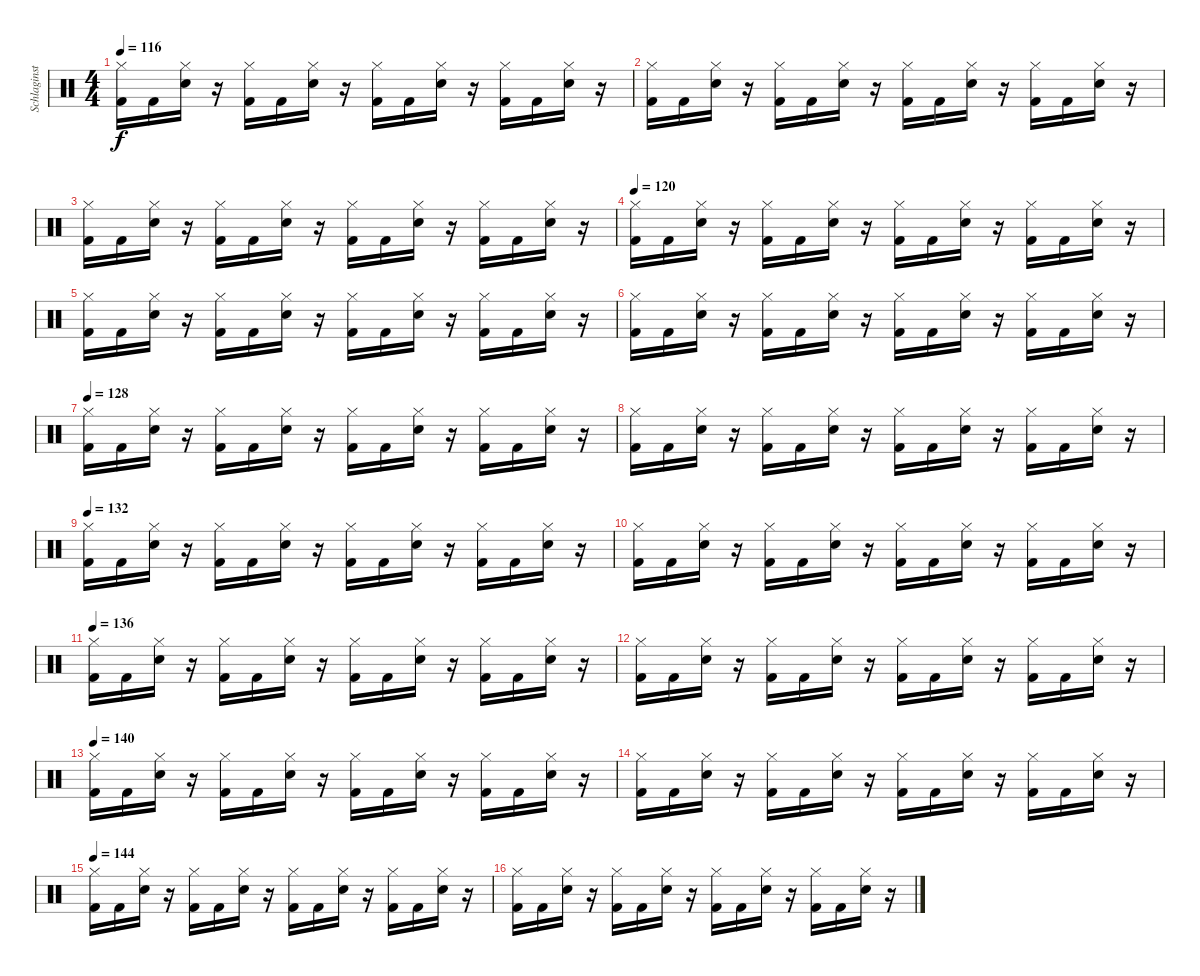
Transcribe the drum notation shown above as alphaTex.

\track ("Schlaginstrumente - Auswahl" "Schlaginst") {instrument percussion}
\staff {score}
\articulation defaults
\ts (4 4)
\tempo 116
\clef neutral
\ks c
("Hi-Hat (closed)" "Kick (hit) 2").16{dy f} "Kick (hit) 2".16 ("Hi-Hat (closed)" "Snare (hit) 2").16 r.16 ("Hi-Hat (closed)" "Kick (hit) 2").16 "Kick (hit) 2".16 ("Hi-Hat (closed)" "Snare (hit) 2").16 r.16 ("Hi-Hat (closed)" "Kick (hit) 2").16 "Kick (hit) 2".16 ("Hi-Hat (closed)" "Snare (hit) 2").16 r.16 ("Hi-Hat (closed)" "Kick (hit) 2").16 "Kick (hit) 2".16 ("Hi-Hat (closed)" "Snare (hit) 2").16 r.16 |
("Hi-Hat (closed)" "Kick (hit) 2").16 "Kick (hit) 2".16 ("Hi-Hat (closed)" "Snare (hit) 2").16 r.16 ("Hi-Hat (closed)" "Kick (hit) 2").16 "Kick (hit) 2".16 ("Hi-Hat (closed)" "Snare (hit) 2").16 r.16 ("Hi-Hat (closed)" "Kick (hit) 2").16 "Kick (hit) 2".16 ("Hi-Hat (closed)" "Snare (hit) 2").16 r.16 ("Hi-Hat (closed)" "Kick (hit) 2").16 "Kick (hit) 2".16 ("Hi-Hat (closed)" "Snare (hit) 2").16 r.16 |
("Hi-Hat (closed)" "Kick (hit) 2").16 "Kick (hit) 2".16 ("Hi-Hat (closed)" "Snare (hit) 2").16 r.16 ("Hi-Hat (closed)" "Kick (hit) 2").16 "Kick (hit) 2".16 ("Hi-Hat (closed)" "Snare (hit) 2").16 r.16 ("Hi-Hat (closed)" "Kick (hit) 2").16 "Kick (hit) 2".16 ("Hi-Hat (closed)" "Snare (hit) 2").16 r.16 ("Hi-Hat (closed)" "Kick (hit) 2").16 "Kick (hit) 2".16 ("Hi-Hat (closed)" "Snare (hit) 2").16 r.16 |
\tempo 120
("Hi-Hat (closed)" "Kick (hit) 2").16 "Kick (hit) 2".16 ("Hi-Hat (closed)" "Snare (hit) 2").16 r.16 ("Hi-Hat (closed)" "Kick (hit) 2").16 "Kick (hit) 2".16 ("Hi-Hat (closed)" "Snare (hit) 2").16 r.16 ("Hi-Hat (closed)" "Kick (hit) 2").16 "Kick (hit) 2".16 ("Hi-Hat (closed)" "Snare (hit) 2").16 r.16 ("Hi-Hat (closed)" "Kick (hit) 2").16 "Kick (hit) 2".16 ("Hi-Hat (closed)" "Snare (hit) 2").16 r.16 |
("Hi-Hat (closed)" "Kick (hit) 2").16 "Kick (hit) 2".16 ("Hi-Hat (closed)" "Snare (hit) 2").16 r.16 ("Hi-Hat (closed)" "Kick (hit) 2").16 "Kick (hit) 2".16 ("Hi-Hat (closed)" "Snare (hit) 2").16 r.16 ("Hi-Hat (closed)" "Kick (hit) 2").16 "Kick (hit) 2".16 ("Hi-Hat (closed)" "Snare (hit) 2").16 r.16 ("Hi-Hat (closed)" "Kick (hit) 2").16 "Kick (hit) 2".16 ("Hi-Hat (closed)" "Snare (hit) 2").16 r.16 |
("Hi-Hat (closed)" "Kick (hit) 2").16 "Kick (hit) 2".16 ("Hi-Hat (closed)" "Snare (hit) 2").16 r.16 ("Hi-Hat (closed)" "Kick (hit) 2").16 "Kick (hit) 2".16 ("Hi-Hat (closed)" "Snare (hit) 2").16 r.16 ("Hi-Hat (closed)" "Kick (hit) 2").16 "Kick (hit) 2".16 ("Hi-Hat (closed)" "Snare (hit) 2").16 r.16 ("Hi-Hat (closed)" "Kick (hit) 2").16 "Kick (hit) 2".16 ("Hi-Hat (closed)" "Snare (hit) 2").16 r.16 |
\tempo 128
("Hi-Hat (closed)" "Kick (hit) 2").16 "Kick (hit) 2".16 ("Hi-Hat (closed)" "Snare (hit) 2").16 r.16 ("Hi-Hat (closed)" "Kick (hit) 2").16 "Kick (hit) 2".16 ("Hi-Hat (closed)" "Snare (hit) 2").16 r.16 ("Hi-Hat (closed)" "Kick (hit) 2").16 "Kick (hit) 2".16 ("Hi-Hat (closed)" "Snare (hit) 2").16 r.16 ("Hi-Hat (closed)" "Kick (hit) 2").16 "Kick (hit) 2".16 ("Hi-Hat (closed)" "Snare (hit) 2").16 r.16 |
("Hi-Hat (closed)" "Kick (hit) 2").16 "Kick (hit) 2".16 ("Hi-Hat (closed)" "Snare (hit) 2").16 r.16 ("Hi-Hat (closed)" "Kick (hit) 2").16 "Kick (hit) 2".16 ("Hi-Hat (closed)" "Snare (hit) 2").16 r.16 ("Hi-Hat (closed)" "Kick (hit) 2").16 "Kick (hit) 2".16 ("Hi-Hat (closed)" "Snare (hit) 2").16 r.16 ("Hi-Hat (closed)" "Kick (hit) 2").16 "Kick (hit) 2".16 ("Hi-Hat (closed)" "Snare (hit) 2").16 r.16 |
\tempo 132
("Hi-Hat (closed)" "Kick (hit) 2").16 "Kick (hit) 2".16 ("Hi-Hat (closed)" "Snare (hit) 2").16 r.16 ("Hi-Hat (closed)" "Kick (hit) 2").16 "Kick (hit) 2".16 ("Hi-Hat (closed)" "Snare (hit) 2").16 r.16 ("Hi-Hat (closed)" "Kick (hit) 2").16 "Kick (hit) 2".16 ("Hi-Hat (closed)" "Snare (hit) 2").16 r.16 ("Hi-Hat (closed)" "Kick (hit) 2").16 "Kick (hit) 2".16 ("Hi-Hat (closed)" "Snare (hit) 2").16 r.16 |
("Hi-Hat (closed)" "Kick (hit) 2").16 "Kick (hit) 2".16 ("Hi-Hat (closed)" "Snare (hit) 2").16 r.16 ("Hi-Hat (closed)" "Kick (hit) 2").16 "Kick (hit) 2".16 ("Hi-Hat (closed)" "Snare (hit) 2").16 r.16 ("Hi-Hat (closed)" "Kick (hit) 2").16 "Kick (hit) 2".16 ("Hi-Hat (closed)" "Snare (hit) 2").16 r.16 ("Hi-Hat (closed)" "Kick (hit) 2").16 "Kick (hit) 2".16 ("Hi-Hat (closed)" "Snare (hit) 2").16 r.16 |
\tempo 136
("Hi-Hat (closed)" "Kick (hit) 2").16 "Kick (hit) 2".16 ("Hi-Hat (closed)" "Snare (hit) 2").16 r.16 ("Hi-Hat (closed)" "Kick (hit) 2").16 "Kick (hit) 2".16 ("Hi-Hat (closed)" "Snare (hit) 2").16 r.16 ("Hi-Hat (closed)" "Kick (hit) 2").16 "Kick (hit) 2".16 ("Hi-Hat (closed)" "Snare (hit) 2").16 r.16 ("Hi-Hat (closed)" "Kick (hit) 2").16 "Kick (hit) 2".16 ("Hi-Hat (closed)" "Snare (hit) 2").16 r.16 |
("Hi-Hat (closed)" "Kick (hit) 2").16 "Kick (hit) 2".16 ("Hi-Hat (closed)" "Snare (hit) 2").16 r.16 ("Hi-Hat (closed)" "Kick (hit) 2").16 "Kick (hit) 2".16 ("Hi-Hat (closed)" "Snare (hit) 2").16 r.16 ("Hi-Hat (closed)" "Kick (hit) 2").16 "Kick (hit) 2".16 ("Hi-Hat (closed)" "Snare (hit) 2").16 r.16 ("Hi-Hat (closed)" "Kick (hit) 2").16 "Kick (hit) 2".16 ("Hi-Hat (closed)" "Snare (hit) 2").16 r.16 |
\tempo 140
("Hi-Hat (closed)" "Kick (hit) 2").16 "Kick (hit) 2".16 ("Hi-Hat (closed)" "Snare (hit) 2").16 r.16 ("Hi-Hat (closed)" "Kick (hit) 2").16 "Kick (hit) 2".16 ("Hi-Hat (closed)" "Snare (hit) 2").16 r.16 ("Hi-Hat (closed)" "Kick (hit) 2").16 "Kick (hit) 2".16 ("Hi-Hat (closed)" "Snare (hit) 2").16 r.16 ("Hi-Hat (closed)" "Kick (hit) 2").16 "Kick (hit) 2".16 ("Hi-Hat (closed)" "Snare (hit) 2").16 r.16 |
("Hi-Hat (closed)" "Kick (hit) 2").16 "Kick (hit) 2".16 ("Hi-Hat (closed)" "Snare (hit) 2").16 r.16 ("Hi-Hat (closed)" "Kick (hit) 2").16 "Kick (hit) 2".16 ("Hi-Hat (closed)" "Snare (hit) 2").16 r.16 ("Hi-Hat (closed)" "Kick (hit) 2").16 "Kick (hit) 2".16 ("Hi-Hat (closed)" "Snare (hit) 2").16 r.16 ("Hi-Hat (closed)" "Kick (hit) 2").16 "Kick (hit) 2".16 ("Hi-Hat (closed)" "Snare (hit) 2").16 r.16 |
\tempo 144
("Hi-Hat (closed)" "Kick (hit) 2").16 "Kick (hit) 2".16 ("Hi-Hat (closed)" "Snare (hit) 2").16 r.16 ("Hi-Hat (closed)" "Kick (hit) 2").16 "Kick (hit) 2".16 ("Hi-Hat (closed)" "Snare (hit) 2").16 r.16 ("Hi-Hat (closed)" "Kick (hit) 2").16 "Kick (hit) 2".16 ("Hi-Hat (closed)" "Snare (hit) 2").16 r.16 ("Hi-Hat (closed)" "Kick (hit) 2").16 "Kick (hit) 2".16 ("Hi-Hat (closed)" "Snare (hit) 2").16 r.16 |
("Hi-Hat (closed)" "Kick (hit) 2").16 "Kick (hit) 2".16 ("Hi-Hat (closed)" "Snare (hit) 2").16 r.16 ("Hi-Hat (closed)" "Kick (hit) 2").16 "Kick (hit) 2".16 ("Hi-Hat (closed)" "Snare (hit) 2").16 r.16 ("Hi-Hat (closed)" "Kick (hit) 2").16 "Kick (hit) 2".16 ("Hi-Hat (closed)" "Snare (hit) 2").16 r.16 ("Hi-Hat (closed)" "Kick (hit) 2").16 "Kick (hit) 2".16 ("Hi-Hat (closed)" "Snare (hit) 2").16 r.16
